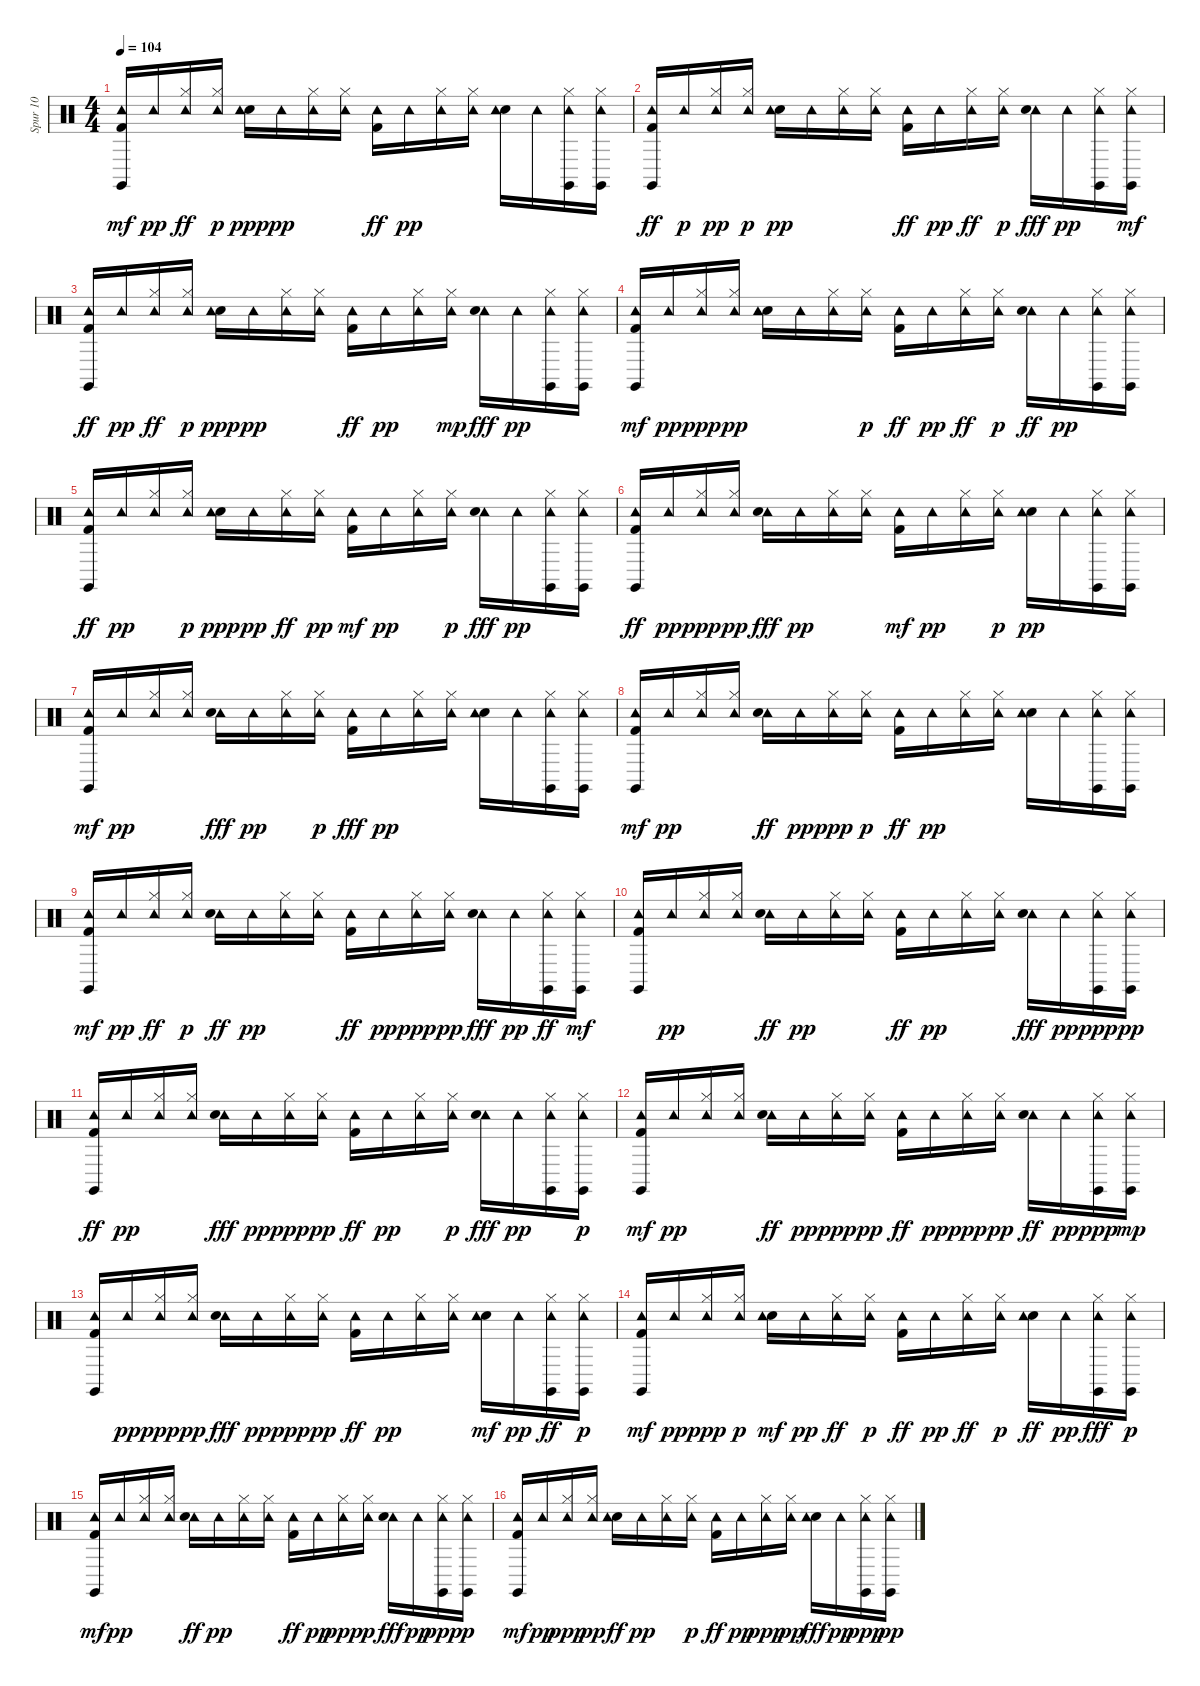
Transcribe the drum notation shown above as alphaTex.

\track ("Spur 10" "Spur 10") {instrument percussion}
\staff {score}
\articulation defaults
\ts (4 4)
\tempo 104
\clef neutral
\ks c
("Tambourine (hit)" "Kick (hit) 2" "Claves (hit)").16{dy mf} "Tambourine (hit)".16{dy pp} ("Tambourine (hit)" "Hi-Hat (closed)").16{dy ff} ("Tambourine (hit)" "Hi-Hat (closed)").16{dy p} ("Electric Snare (hit)" "Tambourine (hit)").16{dy ppp} "Tambourine (hit)".16{dy pp} ("Hi-Hat (closed)" "Tambourine (hit)").16 ("Hi-Hat (closed)" "Tambourine (hit)").16 ("Tambourine (hit)" "Kick (hit) 2").16{dy ff} "Tambourine (hit)".16{dy pp} ("Hi-Hat (closed)" "Tambourine (hit)").16 ("Hi-Hat (closed)" "Tambourine (hit)").16 ("Electric Snare (hit)" "Tambourine (hit)").16 "Tambourine (hit)".16 ("Claves (hit)" "Hi-Hat (closed)" "Tambourine (hit)").16 ("Claves (hit)" "Hi-Hat (closed)" "Tambourine (hit)").16 |
("Tambourine (hit)" "Claves (hit)" "Kick (hit) 2").16{dy ff} "Tambourine (hit)".16{dy p} ("Hi-Hat (closed)" "Tambourine (hit)").16{dy pp} ("Tambourine (hit)" "Hi-Hat (closed)").16{dy p} ("Electric Snare (hit)" "Tambourine (hit)").16{dy pp} "Tambourine (hit)".16 ("Hi-Hat (closed)" "Tambourine (hit)").16 ("Hi-Hat (closed)" "Tambourine (hit)").16 ("Tambourine (hit)" "Kick (hit) 2").16{dy ff} "Tambourine (hit)".16{dy pp} ("Tambourine (hit)" "Hi-Hat (closed)").16{dy ff} ("Tambourine (hit)" "Hi-Hat (closed)").16{dy p} ("Tambourine (hit)" "Electric Snare (hit)").16{dy fff} "Tambourine (hit)".16{dy pp} ("Hi-Hat (closed)" "Tambourine (hit)" "Claves (hit)").16 ("Tambourine (hit)" "Hi-Hat (closed)" "Claves (hit)").16{dy mf} |
("Tambourine (hit)" "Claves (hit)" "Kick (hit) 2").16{dy ff} "Tambourine (hit)".16{dy pp} ("Tambourine (hit)" "Hi-Hat (closed)").16{dy ff} ("Tambourine (hit)" "Hi-Hat (closed)").16{dy p} ("Electric Snare (hit)" "Tambourine (hit)").16{dy ppp} "Tambourine (hit)".16{dy pp} ("Hi-Hat (closed)" "Tambourine (hit)").16 ("Hi-Hat (closed)" "Tambourine (hit)").16 ("Tambourine (hit)" "Kick (hit) 2").16{dy ff} "Tambourine (hit)".16{dy pp} ("Hi-Hat (closed)" "Tambourine (hit)").16 ("Tambourine (hit)" "Hi-Hat (closed)").16{dy mp} ("Tambourine (hit)" "Electric Snare (hit)").16{dy fff} "Tambourine (hit)".16{dy pp} ("Hi-Hat (closed)" "Claves (hit)" "Tambourine (hit)").16 ("Hi-Hat (closed)" "Claves (hit)" "Tambourine (hit)").16 |
("Tambourine (hit)" "Kick (hit) 2" "Claves (hit)").16{dy mf} "Tambourine (hit)".16{dy pp} ("Hi-Hat (closed)" "Tambourine (hit)").16{dy ppp} ("Hi-Hat (closed)" "Tambourine (hit)").16{dy pp} ("Electric Snare (hit)" "Tambourine (hit)").16 "Tambourine (hit)".16 ("Hi-Hat (closed)" "Tambourine (hit)").16 ("Tambourine (hit)" "Hi-Hat (closed)").16{dy p} ("Tambourine (hit)" "Kick (hit) 2").16{dy ff} "Tambourine (hit)".16{dy pp} ("Tambourine (hit)" "Hi-Hat (closed)").16{dy ff} ("Tambourine (hit)" "Hi-Hat (closed)").16{dy p} ("Tambourine (hit)" "Electric Snare (hit)").16{dy ff} "Tambourine (hit)".16{dy pp} ("Hi-Hat (closed)" "Tambourine (hit)" "Claves (hit)").16 ("Hi-Hat (closed)" "Claves (hit)" "Tambourine (hit)").16 |
("Tambourine (hit)" "Kick (hit) 2" "Claves (hit)").16{dy ff} "Tambourine (hit)".16{dy pp} ("Hi-Hat (closed)" "Tambourine (hit)").16 ("Tambourine (hit)" "Hi-Hat (closed)").16{dy p} ("Electric Snare (hit)" "Tambourine (hit)").16{dy ppp} "Tambourine (hit)".16{dy pp} ("Tambourine (hit)" "Hi-Hat (closed)").16{dy ff} ("Hi-Hat (closed)" "Tambourine (hit)").16{dy pp} ("Kick (hit) 2" "Tambourine (hit)").16{dy mf} "Tambourine (hit)".16{dy pp} ("Hi-Hat (closed)" "Tambourine (hit)").16 ("Tambourine (hit)" "Hi-Hat (closed)").16{dy p} ("Tambourine (hit)" "Electric Snare (hit)").16{dy fff} "Tambourine (hit)".16{dy pp} ("Hi-Hat (closed)" "Claves (hit)" "Tambourine (hit)").16 ("Hi-Hat (closed)" "Claves (hit)" "Tambourine (hit)").16 |
("Tambourine (hit)" "Claves (hit)" "Kick (hit) 2").16{dy ff} "Tambourine (hit)".16{dy pp} ("Hi-Hat (closed)" "Tambourine (hit)").16{dy ppp} ("Hi-Hat (closed)" "Tambourine (hit)").16{dy pp} ("Tambourine (hit)" "Electric Snare (hit)").16{dy fff} "Tambourine (hit)".16{dy pp} ("Hi-Hat (closed)" "Tambourine (hit)").16 ("Hi-Hat (closed)" "Tambourine (hit)").16 ("Kick (hit) 2" "Tambourine (hit)").16{dy mf} "Tambourine (hit)".16{dy pp} ("Hi-Hat (closed)" "Tambourine (hit)").16 ("Tambourine (hit)" "Hi-Hat (closed)").16{dy p} ("Electric Snare (hit)" "Tambourine (hit)").16{dy pp} "Tambourine (hit)".16 ("Hi-Hat (closed)" "Claves (hit)" "Tambourine (hit)").16 ("Hi-Hat (closed)" "Claves (hit)" "Tambourine (hit)").16 |
("Kick (hit) 2" "Claves (hit)" "Tambourine (hit)").16{dy mf} "Tambourine (hit)".16{dy pp} ("Hi-Hat (closed)" "Tambourine (hit)").16 ("Hi-Hat (closed)" "Tambourine (hit)").16 ("Tambourine (hit)" "Electric Snare (hit)").16{dy fff} "Tambourine (hit)".16{dy pp} ("Hi-Hat (closed)" "Tambourine (hit)").16 ("Tambourine (hit)" "Hi-Hat (closed)").16{dy p} ("Tambourine (hit)" "Kick (hit) 2").16{dy fff} "Tambourine (hit)".16{dy pp} ("Hi-Hat (closed)" "Tambourine (hit)").16 ("Hi-Hat (closed)" "Tambourine (hit)").16 ("Electric Snare (hit)" "Tambourine (hit)").16 "Tambourine (hit)".16 ("Hi-Hat (closed)" "Claves (hit)" "Tambourine (hit)").16 ("Hi-Hat (closed)" "Claves (hit)" "Tambourine (hit)").16 |
("Kick (hit) 2" "Tambourine (hit)" "Claves (hit)").16{dy mf} "Tambourine (hit)".16{dy pp} ("Hi-Hat (closed)" "Tambourine (hit)").16 ("Hi-Hat (closed)" "Tambourine (hit)").16 ("Tambourine (hit)" "Electric Snare (hit)").16{dy ff} "Tambourine (hit)".16{dy pp} ("Hi-Hat (closed)" "Tambourine (hit)").16{dy ppp} ("Tambourine (hit)" "Hi-Hat (closed)").16{dy p} ("Tambourine (hit)" "Kick (hit) 2").16{dy ff} "Tambourine (hit)".16{dy pp} ("Hi-Hat (closed)" "Tambourine (hit)").16 ("Tambourine (hit)" "Hi-Hat (closed)").16 ("Electric Snare (hit)" "Tambourine (hit)").16 "Tambourine (hit)".16 ("Hi-Hat (closed)" "Claves (hit)" "Tambourine (hit)").16 ("Hi-Hat (closed)" "Claves (hit)" "Tambourine (hit)").16 |
("Kick (hit) 2" "Claves (hit)" "Tambourine (hit)").16{dy mf} "Tambourine (hit)".16{dy pp} ("Tambourine (hit)" "Hi-Hat (closed)").16{dy ff} ("Tambourine (hit)" "Hi-Hat (closed)").16{dy p} ("Tambourine (hit)" "Electric Snare (hit)").16{dy ff} "Tambourine (hit)".16{dy pp} ("Hi-Hat (closed)" "Tambourine (hit)").16 ("Hi-Hat (closed)" "Tambourine (hit)").16 ("Kick (hit) 2" "Tambourine (hit)").16{dy ff} "Tambourine (hit)".16{dy pp} ("Hi-Hat (closed)" "Tambourine (hit)").16{dy ppp} ("Hi-Hat (closed)" "Tambourine (hit)").16{dy pp} ("Tambourine (hit)" "Electric Snare (hit)").16{dy fff} "Tambourine (hit)".16{dy pp} ("Hi-Hat (closed)" "Tambourine (hit)" "Claves (hit)").16{dy ff} ("Tambourine (hit)" "Hi-Hat (closed)" "Claves (hit)").16{dy mf} |
("Kick (hit) 2" "Tambourine (hit)" "Claves (hit)").16 "Tambourine (hit)".16{dy pp} ("Hi-Hat (closed)" "Tambourine (hit)").16 ("Hi-Hat (closed)" "Tambourine (hit)").16 ("Tambourine (hit)" "Electric Snare (hit)").16{dy ff} "Tambourine (hit)".16{dy pp} ("Hi-Hat (closed)" "Tambourine (hit)").16 ("Hi-Hat (closed)" "Tambourine (hit)").16 ("Tambourine (hit)" "Kick (hit) 2").16{dy ff} "Tambourine (hit)".16{dy pp} ("Hi-Hat (closed)" "Tambourine (hit)").16 ("Hi-Hat (closed)" "Tambourine (hit)").16 ("Tambourine (hit)" "Electric Snare (hit)").16{dy fff} "Tambourine (hit)".16{dy pp} ("Hi-Hat (closed)" "Claves (hit)" "Tambourine (hit)").16{dy ppp} ("Hi-Hat (closed)" "Claves (hit)" "Tambourine (hit)").16{dy pp} |
("Tambourine (hit)" "Claves (hit)" "Kick (hit) 2").16{dy ff} "Tambourine (hit)".16{dy pp} ("Hi-Hat (closed)" "Tambourine (hit)").16 ("Hi-Hat (closed)" "Tambourine (hit)").16 ("Tambourine (hit)" "Electric Snare (hit)").16{dy fff} "Tambourine (hit)".16{dy pp} ("Hi-Hat (closed)" "Tambourine (hit)").16{dy ppp} ("Hi-Hat (closed)" "Tambourine (hit)").16{dy pp} ("Tambourine (hit)" "Kick (hit) 2").16{dy ff} "Tambourine (hit)".16{dy pp} ("Hi-Hat (closed)" "Tambourine (hit)").16 ("Tambourine (hit)" "Hi-Hat (closed)").16{dy p} ("Tambourine (hit)" "Electric Snare (hit)").16{dy fff} "Tambourine (hit)".16{dy pp} ("Hi-Hat (closed)" "Claves (hit)" "Tambourine (hit)").16 ("Claves (hit)" "Tambourine (hit)" "Hi-Hat (closed)").16{dy p} |
("Tambourine (hit)" "Kick (hit) 2" "Claves (hit)").16{dy mf} "Tambourine (hit)".16{dy pp} ("Hi-Hat (closed)" "Tambourine (hit)").16 ("Hi-Hat (closed)" "Tambourine (hit)").16 ("Tambourine (hit)" "Electric Snare (hit)").16{dy ff} "Tambourine (hit)".16{dy pp} ("Hi-Hat (closed)" "Tambourine (hit)").16{dy ppp} ("Hi-Hat (closed)" "Tambourine (hit)").16{dy pp} ("Tambourine (hit)" "Kick (hit) 2").16{dy ff} "Tambourine (hit)".16{dy pp} ("Hi-Hat (closed)" "Tambourine (hit)").16{dy ppp} ("Hi-Hat (closed)" "Tambourine (hit)").16{dy pp} ("Tambourine (hit)" "Electric Snare (hit)").16{dy ff} "Tambourine (hit)".16{dy pp} ("Hi-Hat (closed)" "Tambourine (hit)" "Claves (hit)").16{dy ppp} ("Hi-Hat (closed)" "Tambourine (hit)" "Claves (hit)").16{dy mp} |
("Kick (hit) 2" "Tambourine (hit)" "Claves (hit)").16 "Tambourine (hit)".16{dy pp} ("Hi-Hat (closed)" "Tambourine (hit)").16{dy ppp} ("Hi-Hat (closed)" "Tambourine (hit)").16{dy pp} ("Tambourine (hit)" "Electric Snare (hit)").16{dy fff} "Tambourine (hit)".16{dy pp} ("Hi-Hat (closed)" "Tambourine (hit)").16{dy ppp} ("Hi-Hat (closed)" "Tambourine (hit)").16{dy pp} ("Kick (hit) 2" "Tambourine (hit)").16{dy ff} "Tambourine (hit)".16{dy pp} ("Hi-Hat (closed)" "Tambourine (hit)").16 ("Hi-Hat (closed)" "Tambourine (hit)").16 ("Electric Snare (hit)" "Tambourine (hit)").16{dy mf} "Tambourine (hit)".16{dy pp} ("Claves (hit)" "Tambourine (hit)" "Hi-Hat (closed)").16{dy ff} ("Claves (hit)" "Tambourine (hit)" "Hi-Hat (closed)").16{dy p} |
("Kick (hit) 2" "Tambourine (hit)" "Claves (hit)").16{dy mf} "Tambourine (hit)".16{dy pp} ("Hi-Hat (closed)" "Tambourine (hit)").16{dy ppp} ("Tambourine (hit)" "Hi-Hat (closed)").16{dy p} ("Electric Snare (hit)" "Tambourine (hit)").16{dy mf} "Tambourine (hit)".16{dy pp} ("Tambourine (hit)" "Hi-Hat (closed)").16{dy ff} ("Tambourine (hit)" "Hi-Hat (closed)").16{dy p} ("Kick (hit) 2" "Tambourine (hit)").16{dy ff} "Tambourine (hit)".16{dy pp} ("Tambourine (hit)" "Hi-Hat (closed)").16{dy ff} ("Tambourine (hit)" "Hi-Hat (closed)").16{dy p} ("Electric Snare (hit)" "Tambourine (hit)").16{dy ff} "Tambourine (hit)".16{dy pp} ("Claves (hit)" "Tambourine (hit)" "Hi-Hat (closed)").16{dy fff} ("Claves (hit)" "Tambourine (hit)" "Hi-Hat (closed)").16{dy p} |
("Tambourine (hit)" "Kick (hit) 2" "Claves (hit)").16{dy mf} "Tambourine (hit)".16{dy pp} ("Hi-Hat (closed)" "Tambourine (hit)").16 ("Hi-Hat (closed)" "Tambourine (hit)").16 ("Tambourine (hit)" "Electric Snare (hit)").16{dy ff} "Tambourine (hit)".16{dy pp} ("Hi-Hat (closed)" "Tambourine (hit)").16 ("Hi-Hat (closed)" "Tambourine (hit)").16 ("Kick (hit) 2" "Tambourine (hit)").16{dy ff} "Tambourine (hit)".16{dy pp} ("Hi-Hat (closed)" "Tambourine (hit)").16{dy ppp} ("Tambourine (hit)" "Hi-Hat (closed)").16{dy p} ("Tambourine (hit)" "Electric Snare (hit)").16{dy fff} "Tambourine (hit)".16{dy pp} ("Claves (hit)" "Hi-Hat (closed)" "Tambourine (hit)").16{dy ppp} ("Claves (hit)" "Tambourine (hit)" "Hi-Hat (closed)").16{dy p} |
("Kick (hit) 2" "Claves (hit)" "Tambourine (hit)").16{dy mf} "Tambourine (hit)".16{dy pp} ("Hi-Hat (closed)" "Tambourine (hit)").16{dy ppp} ("Hi-Hat (closed)" "Tambourine (hit)").16{dy pp} ("Electric Snare (hit)" "Tambourine (hit)").16{dy ff} "Tambourine (hit)".16{dy pp} ("Hi-Hat (closed)" "Tambourine (hit)").16 ("Tambourine (hit)" "Hi-Hat (closed)").16{dy p} ("Kick (hit) 2" "Tambourine (hit)").16{dy ff} "Tambourine (hit)".16{dy pp} ("Hi-Hat (closed)" "Tambourine (hit)").16{dy ppp} ("Hi-Hat (closed)" "Tambourine (hit)").16{dy pp} ("Electric Snare (hit)" "Tambourine (hit)").16{dy fff} "Tambourine (hit)".16{dy pp} ("Claves (hit)" "Hi-Hat (closed)" "Tambourine (hit)").16{dy ppp} ("Hi-Hat (closed)" "Claves (hit)" "Tambourine (hit)").16{dy pp}
